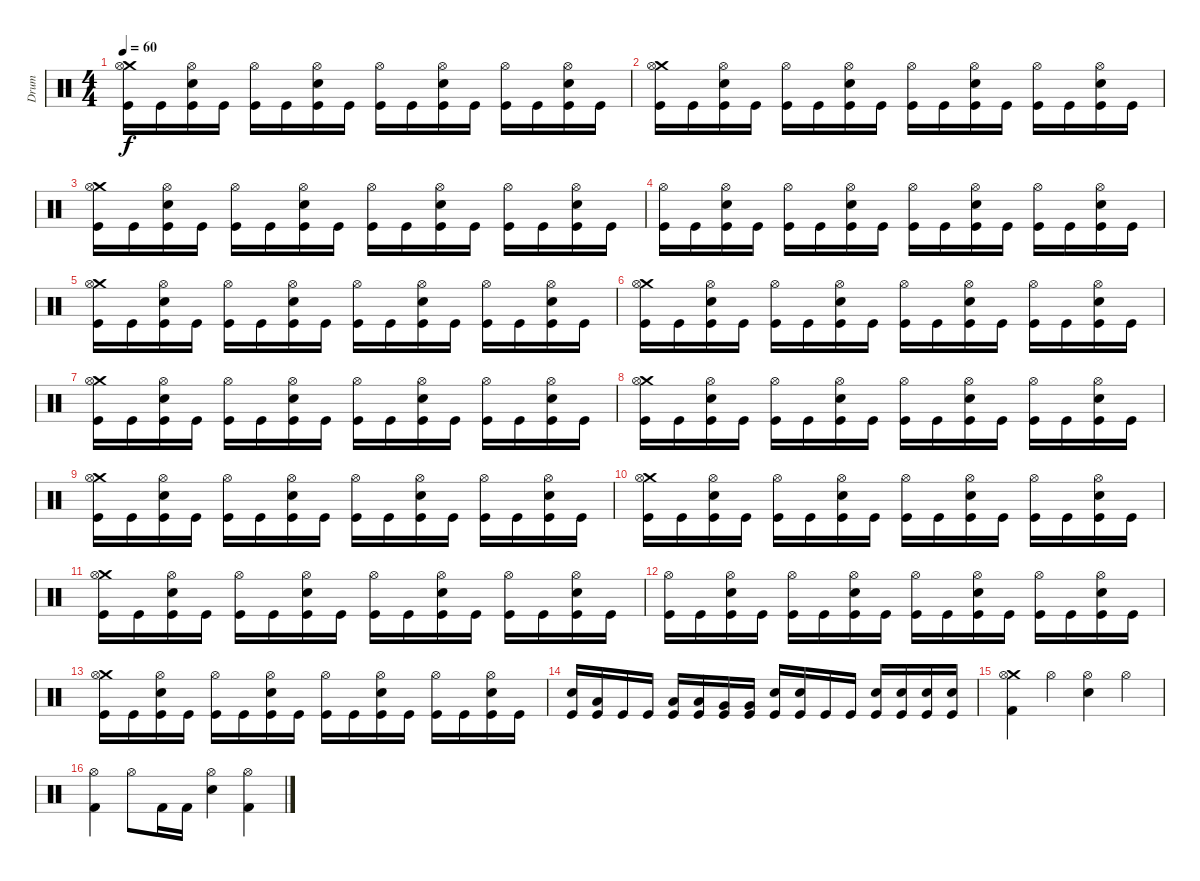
\track ("Drum" "Drum") {instrument percussion}
\staff {score}
\articulation defaults
\ts (4 4)
\tempo 60
\clef neutral
\ks c
("Crash medium (hit)" "Hi-Hat (open)" "Kick (hit)").16{dy f} "Kick (hit)".16 ("Electric Snare (hit)" "Hi-Hat (open)" "Kick (hit)").16 "Kick (hit)".16 ("Hi-Hat (open)" "Kick (hit)").16 "Kick (hit)".16 ("Electric Snare (hit)" "Hi-Hat (open)" "Kick (hit)").16 "Kick (hit)".16 ("Hi-Hat (open)" "Kick (hit)").16 "Kick (hit)".16 ("Electric Snare (hit)" "Hi-Hat (open)" "Kick (hit)").16 "Kick (hit)".16 ("Hi-Hat (open)" "Kick (hit)").16 "Kick (hit)".16 ("Electric Snare (hit)" "Hi-Hat (open)" "Kick (hit)").16 "Kick (hit)".16 |
("Crash medium (hit)" "Hi-Hat (open)" "Kick (hit)").16 "Kick (hit)".16 ("Electric Snare (hit)" "Hi-Hat (open)" "Kick (hit)").16 "Kick (hit)".16 ("Hi-Hat (open)" "Kick (hit)").16 "Kick (hit)".16 ("Electric Snare (hit)" "Hi-Hat (open)" "Kick (hit)").16 "Kick (hit)".16 ("Hi-Hat (open)" "Kick (hit)").16 "Kick (hit)".16 ("Electric Snare (hit)" "Hi-Hat (open)" "Kick (hit)").16 "Kick (hit)".16 ("Hi-Hat (open)" "Kick (hit)").16 "Kick (hit)".16 ("Electric Snare (hit)" "Hi-Hat (open)" "Kick (hit)").16 "Kick (hit)".16 |
("Crash medium (hit)" "Hi-Hat (open)" "Kick (hit)").16 "Kick (hit)".16 ("Electric Snare (hit)" "Hi-Hat (open)" "Kick (hit)").16 "Kick (hit)".16 ("Hi-Hat (open)" "Kick (hit)").16 "Kick (hit)".16 ("Electric Snare (hit)" "Hi-Hat (open)" "Kick (hit)").16 "Kick (hit)".16 ("Hi-Hat (open)" "Kick (hit)").16 "Kick (hit)".16 ("Electric Snare (hit)" "Hi-Hat (open)" "Kick (hit)").16 "Kick (hit)".16 ("Hi-Hat (open)" "Kick (hit)").16 "Kick (hit)".16 ("Electric Snare (hit)" "Hi-Hat (open)" "Kick (hit)").16 "Kick (hit)".16 |
("Hi-Hat (open)" "Kick (hit)").16 "Kick (hit)".16 ("Electric Snare (hit)" "Hi-Hat (open)" "Kick (hit)").16 "Kick (hit)".16 ("Hi-Hat (open)" "Kick (hit)").16 "Kick (hit)".16 ("Electric Snare (hit)" "Hi-Hat (open)" "Kick (hit)").16 "Kick (hit)".16 ("Hi-Hat (open)" "Kick (hit)").16 "Kick (hit)".16 ("Electric Snare (hit)" "Hi-Hat (open)" "Kick (hit)").16 "Kick (hit)".16 ("Hi-Hat (open)" "Kick (hit)").16 "Kick (hit)".16 ("Electric Snare (hit)" "Hi-Hat (open)" "Kick (hit)").16 "Kick (hit)".16 |
("Crash medium (hit)" "Hi-Hat (open)" "Kick (hit)").16 "Kick (hit)".16 ("Electric Snare (hit)" "Hi-Hat (open)" "Kick (hit)").16 "Kick (hit)".16 ("Hi-Hat (open)" "Kick (hit)").16 "Kick (hit)".16 ("Electric Snare (hit)" "Hi-Hat (open)" "Kick (hit)").16 "Kick (hit)".16 ("Hi-Hat (open)" "Kick (hit)").16 "Kick (hit)".16 ("Electric Snare (hit)" "Hi-Hat (open)" "Kick (hit)").16 "Kick (hit)".16 ("Hi-Hat (open)" "Kick (hit)").16 "Kick (hit)".16 ("Electric Snare (hit)" "Hi-Hat (open)" "Kick (hit)").16 "Kick (hit)".16 |
("Crash medium (hit)" "Hi-Hat (open)" "Kick (hit)").16 "Kick (hit)".16 ("Electric Snare (hit)" "Hi-Hat (open)" "Kick (hit)").16 "Kick (hit)".16 ("Hi-Hat (open)" "Kick (hit)").16 "Kick (hit)".16 ("Electric Snare (hit)" "Hi-Hat (open)" "Kick (hit)").16 "Kick (hit)".16 ("Hi-Hat (open)" "Kick (hit)").16 "Kick (hit)".16 ("Electric Snare (hit)" "Hi-Hat (open)" "Kick (hit)").16 "Kick (hit)".16 ("Hi-Hat (open)" "Kick (hit)").16 "Kick (hit)".16 ("Electric Snare (hit)" "Hi-Hat (open)" "Kick (hit)").16 "Kick (hit)".16 |
("Crash medium (hit)" "Hi-Hat (open)" "Kick (hit)").16 "Kick (hit)".16 ("Electric Snare (hit)" "Hi-Hat (open)" "Kick (hit)").16 "Kick (hit)".16 ("Hi-Hat (open)" "Kick (hit)").16 "Kick (hit)".16 ("Electric Snare (hit)" "Hi-Hat (open)" "Kick (hit)").16 "Kick (hit)".16 ("Hi-Hat (open)" "Kick (hit)").16 "Kick (hit)".16 ("Electric Snare (hit)" "Hi-Hat (open)" "Kick (hit)").16 "Kick (hit)".16 ("Hi-Hat (open)" "Kick (hit)").16 "Kick (hit)".16 ("Electric Snare (hit)" "Hi-Hat (open)" "Kick (hit)").16 "Kick (hit)".16 |
("Crash medium (hit)" "Hi-Hat (open)" "Kick (hit)").16 "Kick (hit)".16 ("Electric Snare (hit)" "Hi-Hat (open)" "Kick (hit)").16 "Kick (hit)".16 ("Hi-Hat (open)" "Kick (hit)").16 "Kick (hit)".16 ("Electric Snare (hit)" "Hi-Hat (open)" "Kick (hit)").16 "Kick (hit)".16 ("Hi-Hat (open)" "Kick (hit)").16 "Kick (hit)".16 ("Electric Snare (hit)" "Hi-Hat (open)" "Kick (hit)").16 "Kick (hit)".16 ("Hi-Hat (open)" "Kick (hit)").16 "Kick (hit)".16 ("Electric Snare (hit)" "Hi-Hat (open)" "Kick (hit)").16 "Kick (hit)".16 |
("Crash medium (hit)" "Hi-Hat (open)" "Kick (hit)").16 "Kick (hit)".16 ("Electric Snare (hit)" "Hi-Hat (open)" "Kick (hit)").16 "Kick (hit)".16 ("Hi-Hat (open)" "Kick (hit)").16 "Kick (hit)".16 ("Electric Snare (hit)" "Hi-Hat (open)" "Kick (hit)").16 "Kick (hit)".16 ("Hi-Hat (open)" "Kick (hit)").16 "Kick (hit)".16 ("Electric Snare (hit)" "Hi-Hat (open)" "Kick (hit)").16 "Kick (hit)".16 ("Hi-Hat (open)" "Kick (hit)").16 "Kick (hit)".16 ("Electric Snare (hit)" "Hi-Hat (open)" "Kick (hit)").16 "Kick (hit)".16 |
("Crash medium (hit)" "Hi-Hat (open)" "Kick (hit)").16 "Kick (hit)".16 ("Electric Snare (hit)" "Hi-Hat (open)" "Kick (hit)").16 "Kick (hit)".16 ("Hi-Hat (open)" "Kick (hit)").16 "Kick (hit)".16 ("Electric Snare (hit)" "Hi-Hat (open)" "Kick (hit)").16 "Kick (hit)".16 ("Hi-Hat (open)" "Kick (hit)").16 "Kick (hit)".16 ("Electric Snare (hit)" "Hi-Hat (open)" "Kick (hit)").16 "Kick (hit)".16 ("Hi-Hat (open)" "Kick (hit)").16 "Kick (hit)".16 ("Electric Snare (hit)" "Hi-Hat (open)" "Kick (hit)").16 "Kick (hit)".16 |
("Crash medium (hit)" "Hi-Hat (open)" "Kick (hit)").16 "Kick (hit)".16 ("Electric Snare (hit)" "Hi-Hat (open)" "Kick (hit)").16 "Kick (hit)".16 ("Hi-Hat (open)" "Kick (hit)").16 "Kick (hit)".16 ("Electric Snare (hit)" "Hi-Hat (open)" "Kick (hit)").16 "Kick (hit)".16 ("Hi-Hat (open)" "Kick (hit)").16 "Kick (hit)".16 ("Electric Snare (hit)" "Hi-Hat (open)" "Kick (hit)").16 "Kick (hit)".16 ("Hi-Hat (open)" "Kick (hit)").16 "Kick (hit)".16 ("Electric Snare (hit)" "Hi-Hat (open)" "Kick (hit)").16 "Kick (hit)".16 |
("Hi-Hat (open)" "Kick (hit)").16 "Kick (hit)".16 ("Electric Snare (hit)" "Hi-Hat (open)" "Kick (hit)").16 "Kick (hit)".16 ("Hi-Hat (open)" "Kick (hit)").16 "Kick (hit)".16 ("Electric Snare (hit)" "Hi-Hat (open)" "Kick (hit)").16 "Kick (hit)".16 ("Hi-Hat (open)" "Kick (hit)").16 "Kick (hit)".16 ("Electric Snare (hit)" "Hi-Hat (open)" "Kick (hit)").16 "Kick (hit)".16 ("Hi-Hat (open)" "Kick (hit)").16 "Kick (hit)".16 ("Electric Snare (hit)" "Hi-Hat (open)" "Kick (hit)").16 "Kick (hit)".16 |
("Crash medium (hit)" "Hi-Hat (open)" "Kick (hit)").16 "Kick (hit)".16 ("Electric Snare (hit)" "Hi-Hat (open)" "Kick (hit)").16 "Kick (hit)".16 ("Hi-Hat (open)" "Kick (hit)").16 "Kick (hit)".16 ("Electric Snare (hit)" "Hi-Hat (open)" "Kick (hit)").16 "Kick (hit)".16 ("Hi-Hat (open)" "Kick (hit)").16 "Kick (hit)".16 ("Electric Snare (hit)" "Hi-Hat (open)" "Kick (hit)").16 "Kick (hit)".16 ("Hi-Hat (open)" "Kick (hit)").16 "Kick (hit)".16 ("Electric Snare (hit)" "Hi-Hat (open)" "Kick (hit)").16 "Kick (hit)".16 |
("Electric Snare (hit)" "Kick (hit)").16 ("Low Tom (hit)" "Kick (hit)").16 "Kick (hit)".16 "Kick (hit)".16 ("Low Tom (hit)" "Kick (hit)").16 ("Low Tom (hit)" "Kick (hit)").16 ("Very Low Tom (hit)" "Kick (hit)").16 ("Very Low Tom (hit)" "Kick (hit)").16 ("Electric Snare (hit)" "Kick (hit)").16 ("Electric Snare (hit)" "Kick (hit)").16 "Kick (hit)".16 "Kick (hit)".16 ("Electric Snare (hit)" "Kick (hit)").16 ("Electric Snare (hit)" "Kick (hit)").16 ("Electric Snare (hit)" "Kick (hit)").16 ("Electric Snare (hit)" "Kick (hit)").16 |
("Crash medium (hit)" "Kick (hit) 2" "Hi-Hat (open)").4 "Hi-Hat (open)".4 ("Electric Snare (hit)" "Hi-Hat (open)").4 "Hi-Hat (open)".4 |
("Kick (hit) 2" "Hi-Hat (open)").4 "Hi-Hat (open)".8 "Kick (hit) 2".16 "Kick (hit) 2".16 ("Electric Snare (hit)" "Hi-Hat (open)").4 ("Kick (hit) 2" "Hi-Hat (open)").4
